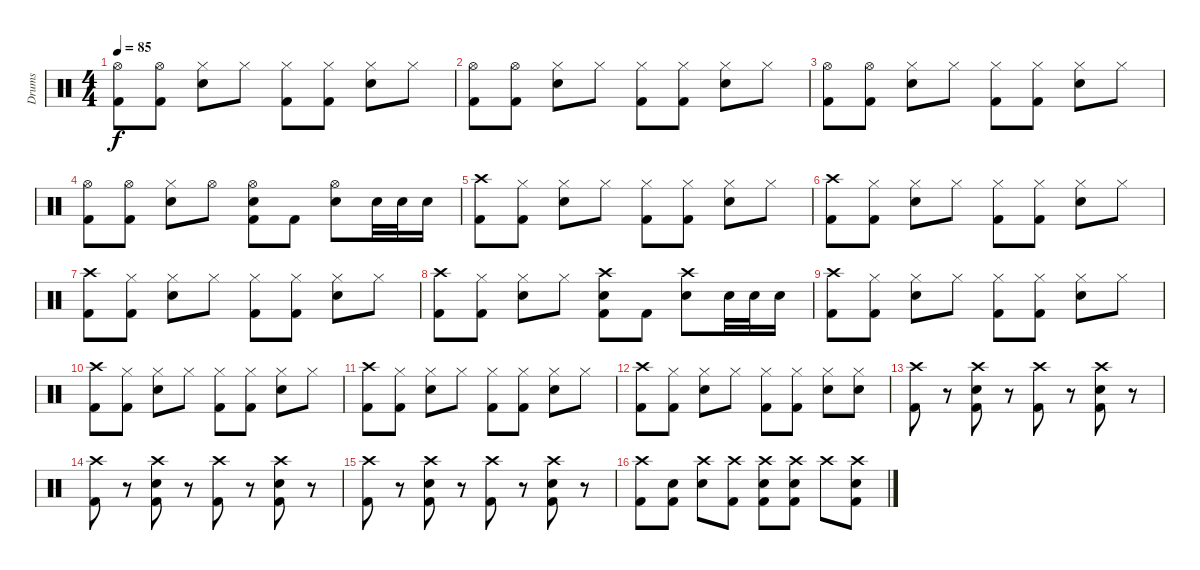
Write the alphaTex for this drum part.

\track ("Drums" "Drums") {instrument percussion}
\staff {score}
\articulation defaults
\ts (4 4)
\tempo 85
\clef neutral
\ks c
("Hi-Hat (open)" "Kick (hit) 2").8{dy f} ("Hi-Hat (open)" "Kick (hit) 2").8 ("Hi-Hat (closed)" "Electric Snare (hit)").8 "Hi-Hat (closed)".8 ("Hi-Hat (closed)" "Kick (hit) 2").8 ("Hi-Hat (closed)" "Kick (hit) 2").8 ("Hi-Hat (closed)" "Electric Snare (hit)").8 "Hi-Hat (closed)".8 |
("Hi-Hat (open)" "Kick (hit) 2").8 ("Hi-Hat (open)" "Kick (hit) 2").8 ("Hi-Hat (closed)" "Electric Snare (hit)").8 "Hi-Hat (closed)".8 ("Hi-Hat (closed)" "Kick (hit) 2").8 ("Hi-Hat (closed)" "Kick (hit) 2").8 ("Hi-Hat (closed)" "Electric Snare (hit)").8 "Hi-Hat (closed)".8 |
("Hi-Hat (open)" "Kick (hit) 2").8 ("Hi-Hat (open)" "Kick (hit) 2").8 ("Hi-Hat (closed)" "Electric Snare (hit)").8 "Hi-Hat (closed)".8 ("Hi-Hat (closed)" "Kick (hit) 2").8 ("Hi-Hat (closed)" "Kick (hit) 2").8 ("Hi-Hat (closed)" "Electric Snare (hit)").8 "Hi-Hat (closed)".8 |
("Hi-Hat (open)" "Kick (hit) 2").8 ("Hi-Hat (open)" "Kick (hit) 2").8 ("Hi-Hat (closed)" "Electric Snare (hit)").8 "Hi-Hat (open)".8 ("Hi-Hat (open)" "Electric Snare (hit)" "Kick (hit) 2").8 "Kick (hit) 2".8 ("Hi-Hat (open)" "Electric Snare (hit)").8 "Electric Snare (hit)".32 "Electric Snare (hit)".32 "Electric Snare (hit)".16 |
("Crash high (hit)" "Kick (hit) 2").8 ("Hi-Hat (closed)" "Kick (hit) 2").8 ("Hi-Hat (closed)" "Electric Snare (hit)").8 "Hi-Hat (closed)".8 ("Hi-Hat (closed)" "Kick (hit) 2").8 ("Hi-Hat (closed)" "Kick (hit) 2").8 ("Hi-Hat (closed)" "Electric Snare (hit)").8 "Hi-Hat (closed)".8 |
("Crash high (hit)" "Kick (hit) 2").8 ("Hi-Hat (closed)" "Kick (hit) 2").8 ("Hi-Hat (closed)" "Electric Snare (hit)").8 "Hi-Hat (closed)".8 ("Hi-Hat (closed)" "Kick (hit) 2").8 ("Hi-Hat (closed)" "Kick (hit) 2").8 ("Hi-Hat (closed)" "Electric Snare (hit)").8 "Hi-Hat (closed)".8 |
("Crash high (hit)" "Kick (hit) 2").8 ("Hi-Hat (closed)" "Kick (hit) 2").8 ("Hi-Hat (closed)" "Electric Snare (hit)").8 "Hi-Hat (closed)".8 ("Hi-Hat (closed)" "Kick (hit) 2").8 ("Hi-Hat (closed)" "Kick (hit) 2").8 ("Hi-Hat (closed)" "Electric Snare (hit)").8 "Hi-Hat (closed)".8 |
("Crash high (hit)" "Kick (hit) 2").8 ("Hi-Hat (closed)" "Kick (hit) 2").8 ("Hi-Hat (closed)" "Electric Snare (hit)").8 "Hi-Hat (closed)".8 ("Crash high (hit)" "Electric Snare (hit)" "Kick (hit) 2").8 "Kick (hit) 2".8 ("Crash high (hit)" "Electric Snare (hit)").8 "Electric Snare (hit)".32 "Electric Snare (hit)".32 "Electric Snare (hit)".16 |
("Crash high (hit)" "Kick (hit) 2").8 ("Hi-Hat (closed)" "Kick (hit) 2").8 ("Hi-Hat (closed)" "Electric Snare (hit)").8 "Hi-Hat (closed)".8 ("Hi-Hat (closed)" "Kick (hit) 2").8 ("Hi-Hat (closed)" "Kick (hit) 2").8 ("Hi-Hat (closed)" "Electric Snare (hit)").8 "Hi-Hat (closed)".8 |
("Crash high (hit)" "Kick (hit) 2").8 ("Hi-Hat (closed)" "Kick (hit) 2").8 ("Hi-Hat (closed)" "Electric Snare (hit)").8 "Hi-Hat (closed)".8 ("Hi-Hat (closed)" "Kick (hit) 2").8 ("Hi-Hat (closed)" "Kick (hit) 2").8 ("Hi-Hat (closed)" "Electric Snare (hit)").8 "Hi-Hat (closed)".8 |
("Crash high (hit)" "Kick (hit) 2").8 ("Hi-Hat (closed)" "Kick (hit) 2").8 ("Hi-Hat (closed)" "Electric Snare (hit)").8 "Hi-Hat (closed)".8 ("Hi-Hat (closed)" "Kick (hit) 2").8 ("Hi-Hat (closed)" "Kick (hit) 2").8 ("Hi-Hat (closed)" "Electric Snare (hit)").8 "Hi-Hat (closed)".8 |
("Crash high (hit)" "Kick (hit) 2").8 ("Hi-Hat (closed)" "Kick (hit) 2").8 ("Hi-Hat (closed)" "Electric Snare (hit)").8 "Hi-Hat (closed)".8 ("Hi-Hat (closed)" "Kick (hit) 2").8 ("Hi-Hat (closed)" "Kick (hit) 2").8 ("Hi-Hat (closed)" "Electric Snare (hit)").8 ("Hi-Hat (closed)" "Electric Snare (hit)").8 |
("Crash high (hit)" "Kick (hit) 2").8 r.8 ("Crash high (hit)" "Electric Snare (hit)" "Kick (hit) 2").8 r.8 ("Crash high (hit)" "Kick (hit) 2").8 r.8 ("Crash high (hit)" "Electric Snare (hit)" "Kick (hit) 2").8 r.8 |
("Crash high (hit)" "Kick (hit) 2").8 r.8 ("Crash high (hit)" "Electric Snare (hit)" "Kick (hit) 2").8 r.8 ("Crash high (hit)" "Kick (hit) 2").8 r.8 ("Crash high (hit)" "Electric Snare (hit)" "Kick (hit) 2").8 r.8 |
("Crash high (hit)" "Kick (hit) 2").8 r.8 ("Crash high (hit)" "Electric Snare (hit)" "Kick (hit) 2").8 r.8 ("Crash high (hit)" "Kick (hit) 2").8 r.8 ("Crash high (hit)" "Electric Snare (hit)" "Kick (hit) 2").8 r.8 |
("Crash high (hit)" "Kick (hit) 2").8 ("Electric Snare (hit)" "Kick (hit) 2").8 ("Crash high (hit)" "Electric Snare (hit)").8 ("Crash high (hit)" "Kick (hit) 2").8 ("Crash high (hit)" "Electric Snare (hit)" "Kick (hit) 2").8 ("Crash high (hit)" "Electric Snare (hit)" "Kick (hit) 2").8 "Crash high (hit)".8 ("Crash high (hit)" "Electric Snare (hit)" "Kick (hit) 2").8
